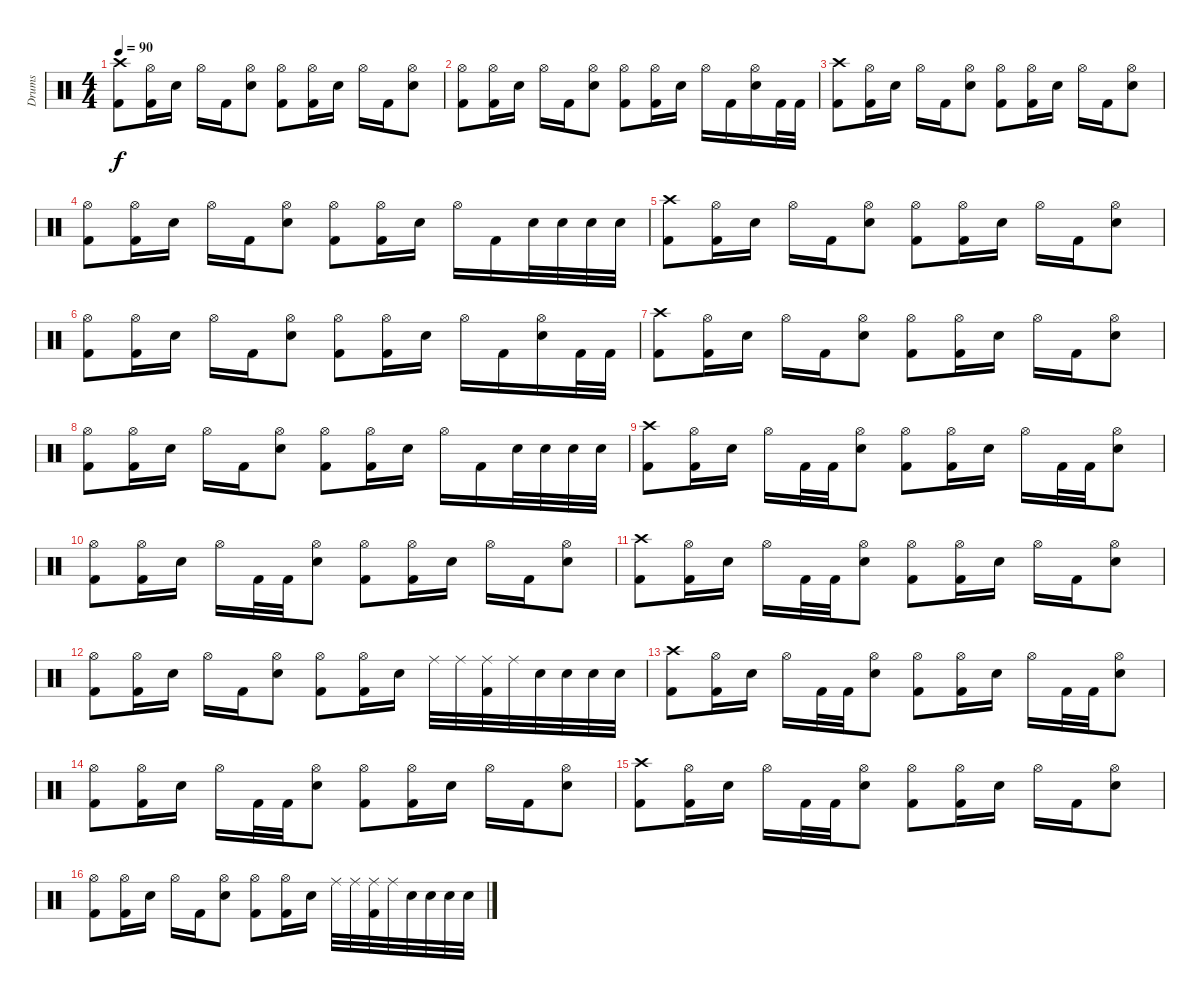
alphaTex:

\track ("Drums" "Drums") {instrument percussion}
\staff {score}
\articulation defaults
\ts (4 4)
\tempo 90
\clef neutral
\ks c
("Kick (hit) 2" "Crash high (hit)").8{dy f} ("Kick (hit) 2" "Hi-Hat (open)").16 "Snare (hit) 2".16 "Hi-Hat (open)".16 "Kick (hit) 2".16 ("Snare (hit) 2" "Hi-Hat (open)").8 ("Kick (hit) 2" "Hi-Hat (open)").8 ("Kick (hit) 2" "Hi-Hat (open)").16 "Snare (hit) 2".16 "Hi-Hat (open)".16 "Kick (hit) 2".16 ("Snare (hit) 2" "Hi-Hat (open)").8 |
("Kick (hit) 2" "Hi-Hat (open)").8 ("Kick (hit) 2" "Hi-Hat (open)").16 "Snare (hit) 2".16 "Hi-Hat (open)".16 "Kick (hit) 2".16 ("Snare (hit) 2" "Hi-Hat (open)").8 ("Kick (hit) 2" "Hi-Hat (open)").8 ("Kick (hit) 2" "Hi-Hat (open)").16 "Snare (hit) 2".16 "Hi-Hat (open)".16 "Kick (hit) 2".16 ("Snare (hit) 2" "Hi-Hat (open)").16 "Kick (hit) 2".32 "Kick (hit) 2".32 |
("Kick (hit) 2" "Crash high (hit)").8 ("Kick (hit) 2" "Hi-Hat (open)").16 "Snare (hit) 2".16 "Hi-Hat (open)".16 "Kick (hit) 2".16 ("Snare (hit) 2" "Hi-Hat (open)").8 ("Kick (hit) 2" "Hi-Hat (open)").8 ("Kick (hit) 2" "Hi-Hat (open)").16 "Snare (hit) 2".16 "Hi-Hat (open)".16 "Kick (hit) 2".16 ("Snare (hit) 2" "Hi-Hat (open)").8 |
("Kick (hit) 2" "Hi-Hat (open)").8 ("Kick (hit) 2" "Hi-Hat (open)").16 "Snare (hit) 2".16 "Hi-Hat (open)".16 "Kick (hit) 2".16 ("Snare (hit) 2" "Hi-Hat (open)").8 ("Kick (hit) 2" "Hi-Hat (open)").8 ("Kick (hit) 2" "Hi-Hat (open)").16 "Snare (hit) 2".16 "Hi-Hat (open)".16 "Kick (hit) 2".16 "Snare (hit) 2".32 "Snare (hit) 2".32 "Snare (hit) 2".32 "Snare (hit) 2".32 |
("Kick (hit) 2" "Crash high (hit)").8 ("Kick (hit) 2" "Hi-Hat (open)").16 "Snare (hit) 2".16 "Hi-Hat (open)".16 "Kick (hit) 2".16 ("Snare (hit) 2" "Hi-Hat (open)").8 ("Kick (hit) 2" "Hi-Hat (open)").8 ("Kick (hit) 2" "Hi-Hat (open)").16 "Snare (hit) 2".16 "Hi-Hat (open)".16 "Kick (hit) 2".16 ("Snare (hit) 2" "Hi-Hat (open)").8 |
("Kick (hit) 2" "Hi-Hat (open)").8 ("Kick (hit) 2" "Hi-Hat (open)").16 "Snare (hit) 2".16 "Hi-Hat (open)".16 "Kick (hit) 2".16 ("Snare (hit) 2" "Hi-Hat (open)").8 ("Kick (hit) 2" "Hi-Hat (open)").8 ("Kick (hit) 2" "Hi-Hat (open)").16 "Snare (hit) 2".16 "Hi-Hat (open)".16 "Kick (hit) 2".16 ("Snare (hit) 2" "Hi-Hat (open)").16 "Kick (hit) 2".32 "Kick (hit) 2".32 |
("Kick (hit) 2" "Crash high (hit)").8 ("Kick (hit) 2" "Hi-Hat (open)").16 "Snare (hit) 2".16 "Hi-Hat (open)".16 "Kick (hit) 2".16 ("Snare (hit) 2" "Hi-Hat (open)").8 ("Kick (hit) 2" "Hi-Hat (open)").8 ("Kick (hit) 2" "Hi-Hat (open)").16 "Snare (hit) 2".16 "Hi-Hat (open)".16 "Kick (hit) 2".16 ("Snare (hit) 2" "Hi-Hat (open)").8 |
("Kick (hit) 2" "Hi-Hat (open)").8 ("Kick (hit) 2" "Hi-Hat (open)").16 "Snare (hit) 2".16 "Hi-Hat (open)".16 "Kick (hit) 2".16 ("Snare (hit) 2" "Hi-Hat (open)").8 ("Kick (hit) 2" "Hi-Hat (open)").8 ("Kick (hit) 2" "Hi-Hat (open)").16 "Snare (hit) 2".16 "Hi-Hat (open)".16 "Kick (hit) 2".16 "Snare (hit) 2".32 "Snare (hit) 2".32 "Snare (hit) 2".32 "Snare (hit) 2".32 |
("Kick (hit) 2" "Crash high (hit)").8 ("Kick (hit) 2" "Hi-Hat (open)").16 "Snare (hit) 2".16 "Hi-Hat (open)".16 "Kick (hit) 2".32 "Kick (hit) 2".32 ("Snare (hit) 2" "Hi-Hat (open)").8 ("Kick (hit) 2" "Hi-Hat (open)").8 ("Kick (hit) 2" "Hi-Hat (open)").16 "Snare (hit) 2".16 "Hi-Hat (open)".16 "Kick (hit) 2".32 "Kick (hit) 2".32 ("Snare (hit) 2" "Hi-Hat (open)").8 |
("Kick (hit) 2" "Hi-Hat (open)").8 ("Kick (hit) 2" "Hi-Hat (open)").16 "Snare (hit) 2".16 "Hi-Hat (open)".16 "Kick (hit) 2".32 "Kick (hit) 2".32 ("Snare (hit) 2" "Hi-Hat (open)").8 ("Kick (hit) 2" "Hi-Hat (open)").8 ("Kick (hit) 2" "Hi-Hat (open)").16 "Snare (hit) 2".16 "Hi-Hat (open)".16 "Kick (hit) 2".16 ("Snare (hit) 2" "Hi-Hat (open)").8 |
("Kick (hit) 2" "Crash high (hit)").8 ("Kick (hit) 2" "Hi-Hat (open)").16 "Snare (hit) 2".16 "Hi-Hat (open)".16 "Kick (hit) 2".32 "Kick (hit) 2".32 ("Snare (hit) 2" "Hi-Hat (open)").8 ("Kick (hit) 2" "Hi-Hat (open)").8 ("Kick (hit) 2" "Hi-Hat (open)").16 "Snare (hit) 2".16 "Hi-Hat (open)".16 "Kick (hit) 2".16 ("Snare (hit) 2" "Hi-Hat (open)").8 |
("Kick (hit) 2" "Hi-Hat (open)").8 ("Kick (hit) 2" "Hi-Hat (open)").16 "Snare (hit) 2".16 "Hi-Hat (open)".16 "Kick (hit) 2".16 ("Snare (hit) 2" "Hi-Hat (open)").8 ("Kick (hit) 2" "Hi-Hat (open)").8 ("Kick (hit) 2" "Hi-Hat (open)").16 "Snare (hit) 2".16 "Ride (middle)".32 "Ride (middle)".32 ("Kick (hit) 2" "Ride (middle)").32 "Ride (middle)".32 "Snare (hit) 2".32 "Snare (hit) 2".32 "Snare (hit) 2".32 "Snare (hit) 2".32 |
("Kick (hit) 2" "Crash high (hit)").8 ("Kick (hit) 2" "Hi-Hat (open)").16 "Snare (hit) 2".16 "Hi-Hat (open)".16 "Kick (hit) 2".32 "Kick (hit) 2".32 ("Snare (hit) 2" "Hi-Hat (open)").8 ("Kick (hit) 2" "Hi-Hat (open)").8 ("Kick (hit) 2" "Hi-Hat (open)").16 "Snare (hit) 2".16 "Hi-Hat (open)".16 "Kick (hit) 2".32 "Kick (hit) 2".32 ("Snare (hit) 2" "Hi-Hat (open)").8 |
("Kick (hit) 2" "Hi-Hat (open)").8 ("Kick (hit) 2" "Hi-Hat (open)").16 "Snare (hit) 2".16 "Hi-Hat (open)".16 "Kick (hit) 2".32 "Kick (hit) 2".32 ("Snare (hit) 2" "Hi-Hat (open)").8 ("Kick (hit) 2" "Hi-Hat (open)").8 ("Kick (hit) 2" "Hi-Hat (open)").16 "Snare (hit) 2".16 "Hi-Hat (open)".16 "Kick (hit) 2".16 ("Snare (hit) 2" "Hi-Hat (open)").8 |
("Kick (hit) 2" "Crash high (hit)").8 ("Kick (hit) 2" "Hi-Hat (open)").16 "Snare (hit) 2".16 "Hi-Hat (open)".16 "Kick (hit) 2".32 "Kick (hit) 2".32 ("Snare (hit) 2" "Hi-Hat (open)").8 ("Kick (hit) 2" "Hi-Hat (open)").8 ("Kick (hit) 2" "Hi-Hat (open)").16 "Snare (hit) 2".16 "Hi-Hat (open)".16 "Kick (hit) 2".16 ("Snare (hit) 2" "Hi-Hat (open)").8 |
("Kick (hit) 2" "Hi-Hat (open)").8 ("Kick (hit) 2" "Hi-Hat (open)").16 "Snare (hit) 2".16 "Hi-Hat (open)".16 "Kick (hit) 2".16 ("Snare (hit) 2" "Hi-Hat (open)").8 ("Kick (hit) 2" "Hi-Hat (open)").8 ("Kick (hit) 2" "Hi-Hat (open)").16 "Snare (hit) 2".16 "Ride (middle)".32 "Ride (middle)".32 ("Kick (hit) 2" "Ride (middle)").32 "Ride (middle)".32 "Snare (hit) 2".32 "Snare (hit) 2".32 "Snare (hit) 2".32 "Snare (hit) 2".32
